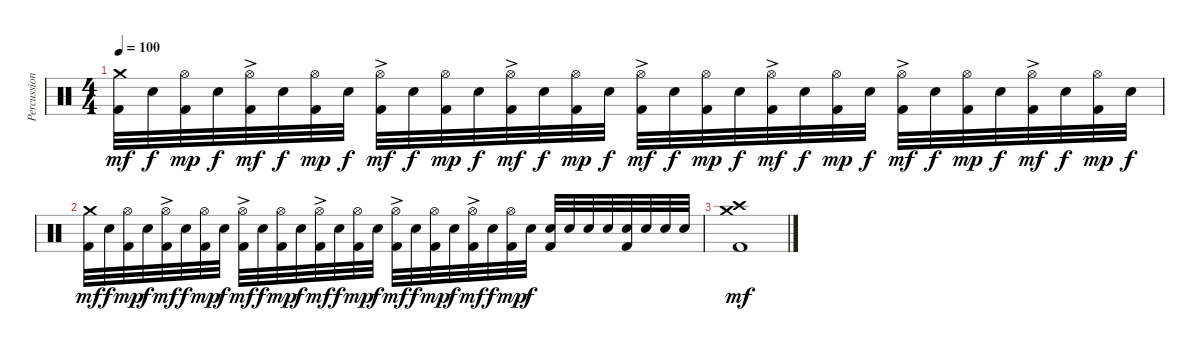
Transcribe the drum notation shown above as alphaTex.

\track ("Percussion" "Percussion") {instrument percussion}
\staff {score}
\articulation defaults
\ts (4 4)
\tempo 100
\clef neutral
\ks c
("Crash medium (hit)" "Kick (hit) 2").32{dy mf} "Electric Snare (hit)".32{dy f} ("Hi-Hat (open)" "Kick (hit) 2").32{dy mp} "Electric Snare (hit)".32{dy f} ("Hi-Hat (open)"{ac} "Kick (hit) 2").32{dy mf} "Electric Snare (hit)".32{dy f} ("Hi-Hat (open)" "Kick (hit) 2").32{dy mp} "Electric Snare (hit)".32{dy f} ("Hi-Hat (open)"{ac} "Kick (hit) 2").32{dy mf} "Electric Snare (hit)".32{dy f} ("Hi-Hat (open)" "Kick (hit) 2").32{dy mp} "Electric Snare (hit)".32{dy f} ("Hi-Hat (open)"{ac} "Kick (hit) 2").32{dy mf} "Electric Snare (hit)".32{dy f} ("Hi-Hat (open)" "Kick (hit) 2").32{dy mp} "Electric Snare (hit)".32{dy f} ("Hi-Hat (open)"{ac} "Kick (hit) 2").32{dy mf} "Electric Snare (hit)".32{dy f} ("Hi-Hat (open)" "Kick (hit) 2").32{dy mp} "Electric Snare (hit)".32{dy f} ("Hi-Hat (open)"{ac} "Kick (hit) 2").32{dy mf} "Electric Snare (hit)".32{dy f} ("Hi-Hat (open)" "Kick (hit) 2").32{dy mp} "Electric Snare (hit)".32{dy f} ("Hi-Hat (open)"{ac} "Kick (hit) 2").32{dy mf} "Electric Snare (hit)".32{dy f} ("Hi-Hat (open)" "Kick (hit) 2").32{dy mp} "Electric Snare (hit)".32{dy f} ("Hi-Hat (open)"{ac} "Kick (hit) 2").32{dy mf} "Electric Snare (hit)".32{dy f} ("Hi-Hat (open)" "Kick (hit) 2").32{dy mp} "Electric Snare (hit)".32{dy f} |
("Crash medium (hit)" "Kick (hit) 2").32{dy mf} "Electric Snare (hit)".32{dy f} ("Hi-Hat (open)" "Kick (hit) 2").32{dy mp} "Electric Snare (hit)".32{dy f} ("Hi-Hat (open)"{ac} "Kick (hit) 2").32{dy mf} "Electric Snare (hit)".32{dy f} ("Hi-Hat (open)" "Kick (hit) 2").32{dy mp} "Electric Snare (hit)".32{dy f} ("Hi-Hat (open)"{ac} "Kick (hit) 2").32{dy mf} "Electric Snare (hit)".32{dy f} ("Hi-Hat (open)" "Kick (hit) 2").32{dy mp} "Electric Snare (hit)".32{dy f} ("Hi-Hat (open)"{ac} "Kick (hit) 2").32{dy mf} "Electric Snare (hit)".32{dy f} ("Hi-Hat (open)" "Kick (hit) 2").32{dy mp} "Electric Snare (hit)".32{dy f} ("Hi-Hat (open)"{ac} "Kick (hit) 2").32{dy mf} "Electric Snare (hit)".32{dy f} ("Hi-Hat (open)" "Kick (hit) 2").32{dy mp} "Electric Snare (hit)".32{dy f} ("Hi-Hat (open)"{ac} "Kick (hit) 2").32{dy mf} "Electric Snare (hit)".32{dy f} ("Hi-Hat (open)" "Kick (hit) 2").32{dy mp} "Electric Snare (hit)".32{dy f} ("Electric Snare (hit)" "Kick (hit) 2").32 "Electric Snare (hit)".32 "Electric Snare (hit)".32 "Electric Snare (hit)".32 ("Electric Snare (hit)" "Kick (hit) 2").32 "Electric Snare (hit)".32 "Electric Snare (hit)".32 "Electric Snare (hit)".32 |
("Crash medium (hit)" "Crash high (hit)" "Kick (hit) 2").1{dy mf}
